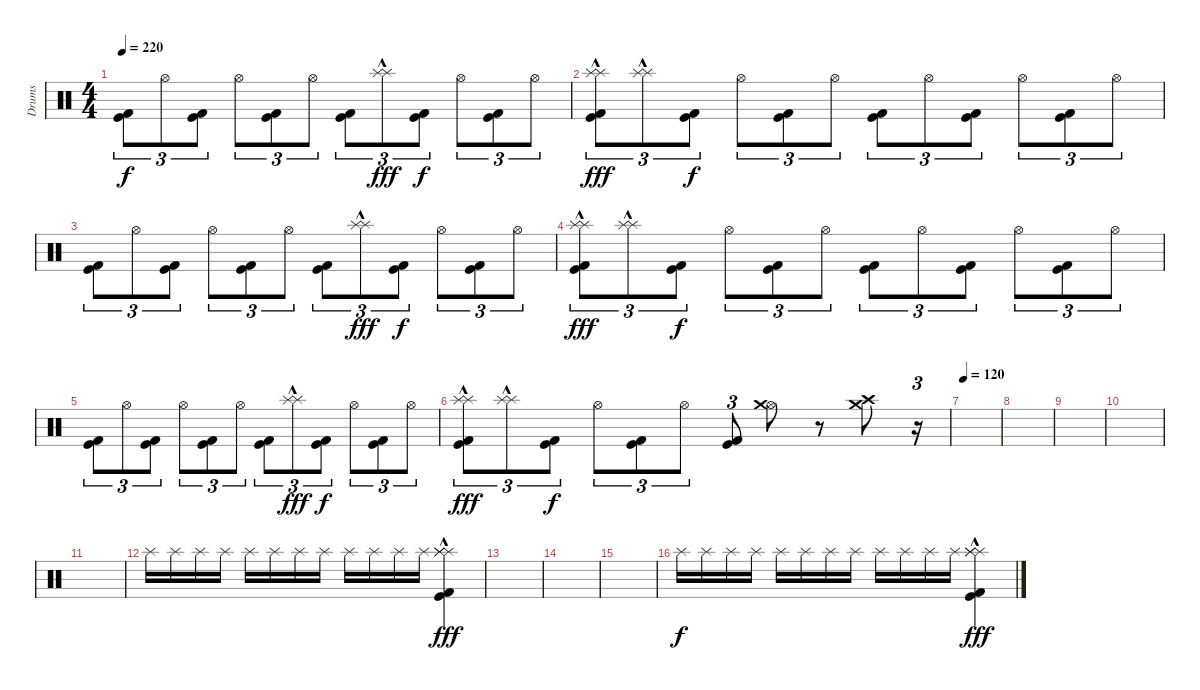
\track ("Drums" "Drums") {instrument percussion}
\staff {score}
\articulation defaults
\ts (4 4)
\tempo 220
\clef neutral
\ks c
("Kick (hit)" "Kick (hit) 2").8{tu (3 2) dy f} "Hi-Hat (open)".8{tu (3 2)} ("Kick (hit)" "Kick (hit) 2").8{tu (3 2)} "Hi-Hat (open)".8{tu (3 2)} ("Kick (hit)" "Kick (hit) 2").8{tu (3 2)} "Hi-Hat (open)".8{tu (3 2)} ("Kick (hit)" "Kick (hit) 2").8{tu (3 2)} ("Splash (hit)"{hac} "Splash (hit)"{hac}).8{tu (3 2) dy fff} ("Kick (hit)" "Kick (hit) 2").8{tu (3 2) dy f} "Hi-Hat (open)".8{tu (3 2)} ("Kick (hit)" "Kick (hit) 2").8{tu (3 2)} "Hi-Hat (open)".8{tu (3 2)} |
("Splash (hit)"{hac} "Splash (hit)"{hac} "Kick (hit)" "Kick (hit) 2").8{tu (3 2) dy fff} ("Splash (hit)"{hac} "Splash (hit)"{hac}).8{tu (3 2)} ("Kick (hit)" "Kick (hit) 2").8{tu (3 2) dy f} "Hi-Hat (open)".8{tu (3 2)} ("Kick (hit)" "Kick (hit) 2").8{tu (3 2)} "Hi-Hat (open)".8{tu (3 2)} ("Kick (hit)" "Kick (hit) 2").8{tu (3 2)} "Hi-Hat (open)".8{tu (3 2)} ("Kick (hit)" "Kick (hit) 2").8{tu (3 2)} "Hi-Hat (open)".8{tu (3 2)} ("Kick (hit)" "Kick (hit) 2").8{tu (3 2)} "Hi-Hat (open)".8{tu (3 2)} |
("Kick (hit)" "Kick (hit) 2").8{tu (3 2)} "Hi-Hat (open)".8{tu (3 2)} ("Kick (hit)" "Kick (hit) 2").8{tu (3 2)} "Hi-Hat (open)".8{tu (3 2)} ("Kick (hit)" "Kick (hit) 2").8{tu (3 2)} "Hi-Hat (open)".8{tu (3 2)} ("Kick (hit)" "Kick (hit) 2").8{tu (3 2)} ("Splash (hit)"{hac} "Splash (hit)"{hac}).8{tu (3 2) dy fff} ("Kick (hit)" "Kick (hit) 2").8{tu (3 2) dy f} "Hi-Hat (open)".8{tu (3 2)} ("Kick (hit)" "Kick (hit) 2").8{tu (3 2)} "Hi-Hat (open)".8{tu (3 2)} |
("Splash (hit)"{hac} "Splash (hit)"{hac} "Kick (hit)" "Kick (hit) 2").8{tu (3 2) dy fff} ("Splash (hit)"{hac} "Splash (hit)"{hac}).8{tu (3 2)} ("Kick (hit)" "Kick (hit) 2").8{tu (3 2) dy f} "Hi-Hat (open)".8{tu (3 2)} ("Kick (hit)" "Kick (hit) 2").8{tu (3 2)} "Hi-Hat (open)".8{tu (3 2)} ("Kick (hit)" "Kick (hit) 2").8{tu (3 2)} "Hi-Hat (open)".8{tu (3 2)} ("Kick (hit)" "Kick (hit) 2").8{tu (3 2)} "Hi-Hat (open)".8{tu (3 2)} ("Kick (hit)" "Kick (hit) 2").8{tu (3 2)} "Hi-Hat (open)".8{tu (3 2)} |
("Kick (hit)" "Kick (hit) 2").8{tu (3 2)} "Hi-Hat (open)".8{tu (3 2)} ("Kick (hit)" "Kick (hit) 2").8{tu (3 2)} "Hi-Hat (open)".8{tu (3 2)} ("Kick (hit)" "Kick (hit) 2").8{tu (3 2)} "Hi-Hat (open)".8{tu (3 2)} ("Kick (hit)" "Kick (hit) 2").8{tu (3 2)} ("Splash (hit)"{hac} "Splash (hit)"{hac}).8{tu (3 2) dy fff} ("Kick (hit)" "Kick (hit) 2").8{tu (3 2) dy f} "Hi-Hat (open)".8{tu (3 2)} ("Kick (hit)" "Kick (hit) 2").8{tu (3 2)} "Hi-Hat (open)".8{tu (3 2)} |
("Splash (hit)"{hac} "Splash (hit)"{hac} "Kick (hit)" "Kick (hit) 2").8{tu (3 2) dy fff} ("Splash (hit)"{hac} "Splash (hit)"{hac}).8{tu (3 2)} ("Kick (hit)" "Kick (hit) 2").8{tu (3 2) dy f} "Hi-Hat (open)".8{tu (3 2)} ("Kick (hit)" "Kick (hit) 2").8{tu (3 2)} "Hi-Hat (open)".8{tu (3 2)} ("Kick (hit)" "Kick (hit) 2").8{tu (3 2)} ("Hi-Hat (open)" "Crash medium (hit)").8 r.8 ("Crash high (hit)" "Crash medium (hit)").8 r.16{tu (3 2)} |
\tempo 120
|
|
|
|
|
"Splash (hit)".16{volume 16} "Splash (hit)".16 "Splash (hit)".16 "Splash (hit)".16 "Splash (hit)".16 "Splash (hit)".16 "Splash (hit)".16 "Splash (hit)".16 "Splash (hit)".16 "Splash (hit)".16 "Splash (hit)".16 "Splash (hit)".16 ("Splash (hit)"{hac} "Splash (hit)"{hac} "Splash (hit)"{hac} "Kick (hit)" "Kick (hit) 2").4{dy fff} |
|
|
|
"Splash (hit)".16{dy f volume 16} "Splash (hit)".16 "Splash (hit)".16 "Splash (hit)".16 "Splash (hit)".16 "Splash (hit)".16 "Splash (hit)".16 "Splash (hit)".16 "Splash (hit)".16 "Splash (hit)".16 "Splash (hit)".16 "Splash (hit)".16 ("Splash (hit)"{hac} "Splash (hit)"{hac} "Splash (hit)"{hac} "Kick (hit)" "Kick (hit) 2").4{dy fff}
